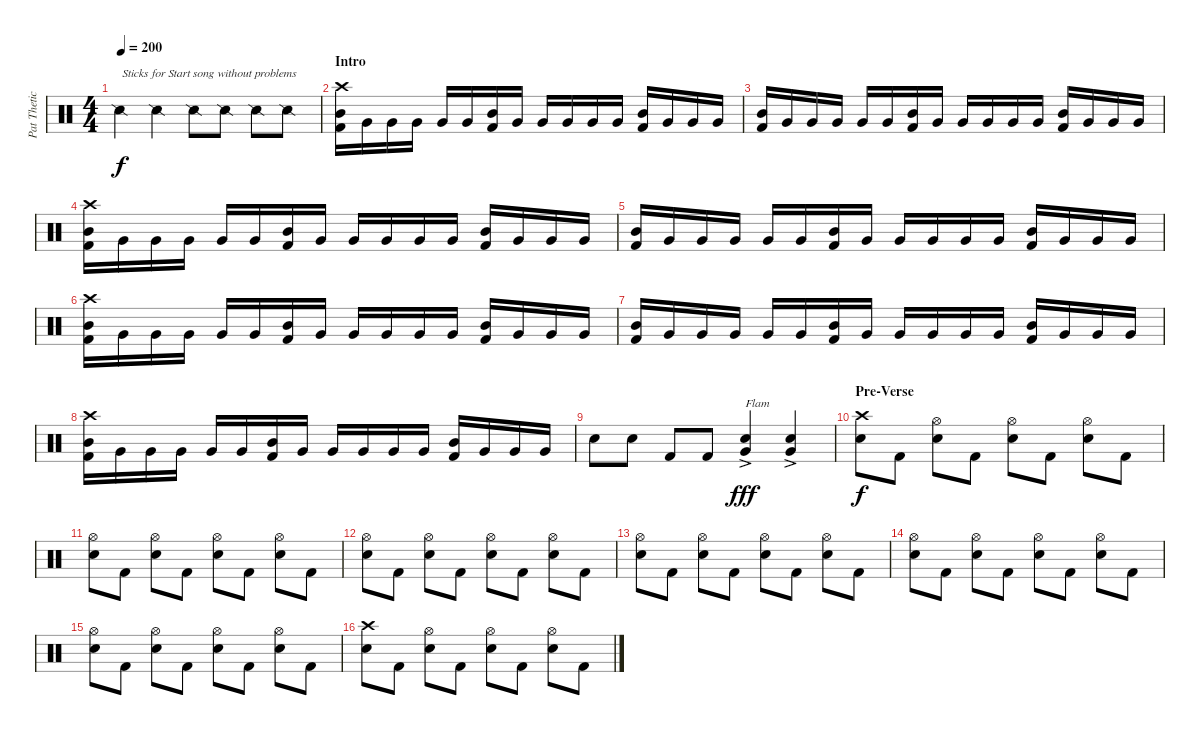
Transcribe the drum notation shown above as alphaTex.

\track ("Pat Thetic (Drums)" "Pat Thetic") {instrument percussion}
\staff {score}
\articulation defaults
\ts (4 4)
\section ("" "")
\tempo 200
\clef neutral
\ks c "Snare (side stick) 2".4{txt "Sticks for Start song without problems" dy f} "Snare (side stick) 2".4 "Snare (side stick) 2".8 "Snare (side stick) 2".8 "Snare (side stick) 2".8 "Snare (side stick) 2".8
|
\section ("" "Intro")
("Crash high (hit)" "Mid Tom (hit)" "Kick (hit) 2").16 "Very Low Tom (hit)".16 "Very Low Tom (hit)".16 "Very Low Tom (hit)".16 "Very Low Tom (hit)".16 "Very Low Tom (hit)".16 ("Mid Tom (hit)" "Kick (hit) 2").16 "Very Low Tom (hit)".16 "Very Low Tom (hit)".16 "Very Low Tom (hit)".16 "Very Low Tom (hit)".16 "Very Low Tom (hit)".16 ("Mid Tom (hit)" "Kick (hit) 2").16 "Very Low Tom (hit)".16 "Very Low Tom (hit)".16 "Very Low Tom (hit)".16 |
("Mid Tom (hit)" "Kick (hit) 2").16 "Very Low Tom (hit)".16 "Very Low Tom (hit)".16 "Very Low Tom (hit)".16 "Very Low Tom (hit)".16 "Very Low Tom (hit)".16 ("Mid Tom (hit)" "Kick (hit) 2").16 "Very Low Tom (hit)".16 "Very Low Tom (hit)".16 "Very Low Tom (hit)".16 "Very Low Tom (hit)".16 "Very Low Tom (hit)".16 ("Mid Tom (hit)" "Kick (hit) 2").16 "Very Low Tom (hit)".16 "Very Low Tom (hit)".16 "Very Low Tom (hit)".16 |
("Crash high (hit)" "Mid Tom (hit)" "Kick (hit) 2").16 "Very Low Tom (hit)".16 "Very Low Tom (hit)".16 "Very Low Tom (hit)".16 "Very Low Tom (hit)".16 "Very Low Tom (hit)".16 ("Mid Tom (hit)" "Kick (hit) 2").16 "Very Low Tom (hit)".16 "Very Low Tom (hit)".16 "Very Low Tom (hit)".16 "Very Low Tom (hit)".16 "Very Low Tom (hit)".16 ("Mid Tom (hit)" "Kick (hit) 2").16 "Very Low Tom (hit)".16 "Very Low Tom (hit)".16 "Very Low Tom (hit)".16 |
("Mid Tom (hit)" "Kick (hit) 2").16 "Very Low Tom (hit)".16 "Very Low Tom (hit)".16 "Very Low Tom (hit)".16 "Very Low Tom (hit)".16 "Very Low Tom (hit)".16 ("Mid Tom (hit)" "Kick (hit) 2").16 "Very Low Tom (hit)".16 "Very Low Tom (hit)".16 "Very Low Tom (hit)".16 "Very Low Tom (hit)".16 "Very Low Tom (hit)".16 ("Mid Tom (hit)" "Kick (hit) 2").16 "Very Low Tom (hit)".16 "Very Low Tom (hit)".16 "Very Low Tom (hit)".16 |
("Crash high (hit)" "Mid Tom (hit)" "Kick (hit) 2").16 "Very Low Tom (hit)".16 "Very Low Tom (hit)".16 "Very Low Tom (hit)".16 "Very Low Tom (hit)".16 "Very Low Tom (hit)".16 ("Mid Tom (hit)" "Kick (hit) 2").16 "Very Low Tom (hit)".16 "Very Low Tom (hit)".16 "Very Low Tom (hit)".16 "Very Low Tom (hit)".16 "Very Low Tom (hit)".16 ("Mid Tom (hit)" "Kick (hit) 2").16 "Very Low Tom (hit)".16 "Very Low Tom (hit)".16 "Very Low Tom (hit)".16 |
("Mid Tom (hit)" "Kick (hit) 2").16 "Very Low Tom (hit)".16 "Very Low Tom (hit)".16 "Very Low Tom (hit)".16 "Very Low Tom (hit)".16 "Very Low Tom (hit)".16 ("Mid Tom (hit)" "Kick (hit) 2").16 "Very Low Tom (hit)".16 "Very Low Tom (hit)".16 "Very Low Tom (hit)".16 "Very Low Tom (hit)".16 "Very Low Tom (hit)".16 ("Mid Tom (hit)" "Kick (hit) 2").16 "Very Low Tom (hit)".16 "Very Low Tom (hit)".16 "Very Low Tom (hit)".16 |
("Crash high (hit)" "Mid Tom (hit)" "Kick (hit) 2").16 "Very Low Tom (hit)".16 "Very Low Tom (hit)".16 "Very Low Tom (hit)".16 "Very Low Tom (hit)".16 "Very Low Tom (hit)".16 ("Mid Tom (hit)" "Kick (hit) 2").16 "Very Low Tom (hit)".16 "Very Low Tom (hit)".16 "Very Low Tom (hit)".16 "Very Low Tom (hit)".16 "Very Low Tom (hit)".16 ("Mid Tom (hit)" "Kick (hit) 2").16 "Very Low Tom (hit)".16 "Very Low Tom (hit)".16 "Very Low Tom (hit)".16 |
"Electric Snare (hit)".8 "Electric Snare (hit)".8 "Kick (hit) 2".8 "Kick (hit) 2".8 ("Electric Snare (hit)"{ac} "Very Low Tom (hit)"{ac}).4{txt "Flam" dy fff} ("Electric Snare (hit)"{ac} "Very Low Tom (hit)"{ac}).4 |
\section ("" "Pre-Verse")
("Crash high (hit)" "Electric Snare (hit)").8{dy f} "Kick (hit) 2".8 ("Hi-Hat (open)" "Electric Snare (hit)").8 "Kick (hit) 2".8 ("Hi-Hat (open)" "Electric Snare (hit)").8 "Kick (hit) 2".8 ("Hi-Hat (open)" "Electric Snare (hit)").8 "Kick (hit) 2".8 |
("Hi-Hat (open)" "Electric Snare (hit)").8 "Kick (hit) 2".8 ("Hi-Hat (open)" "Electric Snare (hit)").8 "Kick (hit) 2".8 ("Hi-Hat (open)" "Electric Snare (hit)").8 "Kick (hit) 2".8 ("Hi-Hat (open)" "Electric Snare (hit)").8 "Kick (hit) 2".8 |
("Hi-Hat (open)" "Electric Snare (hit)").8 "Kick (hit) 2".8 ("Hi-Hat (open)" "Electric Snare (hit)").8 "Kick (hit) 2".8 ("Hi-Hat (open)" "Electric Snare (hit)").8 "Kick (hit) 2".8 ("Hi-Hat (open)" "Electric Snare (hit)").8 "Kick (hit) 2".8 |
("Hi-Hat (open)" "Electric Snare (hit)").8 "Kick (hit) 2".8 ("Hi-Hat (open)" "Electric Snare (hit)").8 "Kick (hit) 2".8 ("Hi-Hat (open)" "Electric Snare (hit)").8 "Kick (hit) 2".8 ("Hi-Hat (open)" "Electric Snare (hit)").8 "Kick (hit) 2".8 |
("Hi-Hat (open)" "Electric Snare (hit)").8 "Kick (hit) 2".8 ("Hi-Hat (open)" "Electric Snare (hit)").8 "Kick (hit) 2".8 ("Hi-Hat (open)" "Electric Snare (hit)").8 "Kick (hit) 2".8 ("Hi-Hat (open)" "Electric Snare (hit)").8 "Kick (hit) 2".8 |
("Hi-Hat (open)" "Electric Snare (hit)").8 "Kick (hit) 2".8 ("Hi-Hat (open)" "Electric Snare (hit)").8 "Kick (hit) 2".8 ("Hi-Hat (open)" "Electric Snare (hit)").8 "Kick (hit) 2".8 ("Hi-Hat (open)" "Electric Snare (hit)").8 "Kick (hit) 2".8 |
("Crash high (hit)" "Electric Snare (hit)").8 "Kick (hit) 2".8 ("Hi-Hat (open)" "Electric Snare (hit)").8 "Kick (hit) 2".8 ("Hi-Hat (open)" "Electric Snare (hit)").8 "Kick (hit) 2".8 ("Hi-Hat (open)" "Electric Snare (hit)").8 "Kick (hit) 2".8
